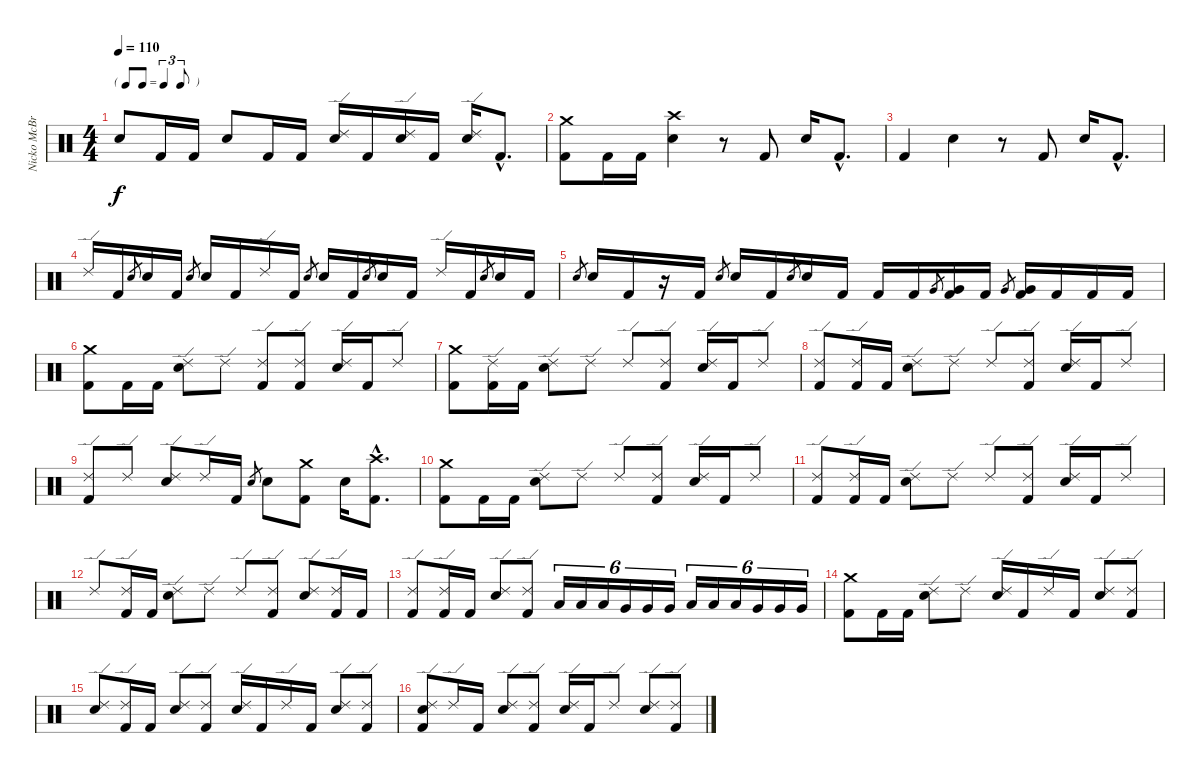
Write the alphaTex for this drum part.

\track ("Nicko McBrain" "Nicko McBr") {instrument percussion}
\staff {score}
\articulation defaults
\ts (4 4)
\tf triplet8th
\tempo 110
\clef neutral
\ks c "Electric Snare (hit)".8{dy f} "Kick (hit) 2".16 "Kick (hit) 2".16 "Electric Snare (hit)".8 "Kick (hit) 2".16 "Kick (hit) 2".16
("Ride (edge) 2" "Electric Snare (hit)").16 "Kick (hit) 2".16 ("Ride (edge) 2" "Electric Snare (hit)").16 "Kick (hit) 2".16 ("Ride (edge) 2" "Electric Snare (hit)").16 "Kick (hit) 2"{hac}.8{d} |
("Crash medium (hit)" "Kick (hit) 2").8 "Kick (hit) 2".16 "Kick (hit) 2".16 ("Crash high (hit)" "Electric Snare (hit)").4 r.8 "Kick (hit) 2".8 "Electric Snare (hit)".16 "Kick (hit) 2"{hac}.8{d} |
"Kick (hit) 2".4 "Electric Snare (hit)".4 r.8 "Kick (hit) 2".8 "Electric Snare (hit)".16 "Kick (hit) 2"{hac}.8{d} |
"Ride (edge) 2".16 "Kick (hit) 2".16 "Electric Snare (hit)".8{gr} "Electric Snare (hit)".16 "Kick (hit) 2".16 "Electric Snare (hit)".8{gr} "Electric Snare (hit)".16 "Kick (hit) 2".16 "Ride (edge) 2".16 "Kick (hit) 2".16 "Electric Snare (hit)".8{gr} "Electric Snare (hit)".16 "Kick (hit) 2".16 "Electric Snare (hit)".8{gr} "Electric Snare (hit)".16 "Kick (hit) 2".16 "Ride (edge) 2".16 "Kick (hit) 2".16 "Electric Snare (hit)".8{gr} "Electric Snare (hit)".16 "Kick (hit) 2".16 |
"Electric Snare (hit)".8{gr} "Electric Snare (hit)".16 "Kick (hit) 2".16 r.16 "Kick (hit) 2".16 "Electric Snare (hit)".8{gr} "Electric Snare (hit)".16 "Kick (hit) 2".16 "Electric Snare (hit)".8{gr} "Electric Snare (hit)".16 "Kick (hit) 2".16 "Kick (hit) 2".16 "Kick (hit) 2".16 "Very Low Tom (hit)".8{gr} ("Very Low Tom (hit)" "Kick (hit) 2").16 "Kick (hit) 2".16 "Very Low Tom (hit)".8{gr} ("Very Low Tom (hit)" "Kick (hit) 2").16 "Kick (hit) 2".16 "Kick (hit) 2".16 "Kick (hit) 2".16 |
("Crash medium (hit)" "Kick (hit) 2").8 "Kick (hit) 2".16 "Kick (hit) 2".16 ("Ride (edge) 2" "Electric Snare (hit)").8 "Ride (edge) 2".8 ("Ride (edge) 2" "Kick (hit) 2").8 ("Ride (edge) 2" "Kick (hit) 2").8 ("Ride (edge) 2" "Electric Snare (hit)").16 "Kick (hit) 2".16 "Ride (edge) 2".8 |
("Crash medium (hit)" "Kick (hit) 2").8 ("Ride (edge) 2" "Kick (hit) 2").16 "Kick (hit) 2".16 ("Ride (edge) 2" "Electric Snare (hit)").8 "Ride (edge) 2".8 "Ride (edge) 2".8 ("Ride (edge) 2" "Kick (hit) 2").8 ("Ride (edge) 2" "Electric Snare (hit)").16 "Kick (hit) 2".16 "Ride (edge) 2".8 |
("Ride (edge) 2" "Kick (hit) 2").8 ("Ride (edge) 2" "Kick (hit) 2").16 "Kick (hit) 2".16 ("Ride (edge) 2" "Electric Snare (hit)").8 "Ride (edge) 2".8 "Ride (edge) 2".8 ("Ride (edge) 2" "Kick (hit) 2").8 ("Ride (edge) 2" "Electric Snare (hit)").16 "Kick (hit) 2".16 "Ride (edge) 2".8 |
("Ride (edge) 2" "Kick (hit) 2").8 "Ride (edge) 2".8 ("Ride (edge) 2" "Electric Snare (hit)").8 "Ride (edge) 2".16 "Kick (hit) 2".16 "Electric Snare (hit)".8{gr} "Electric Snare (hit)".8 ("Crash medium (hit)" "Kick (hit) 2").8 "Electric Snare (hit)".16 ("Crash high (hit)"{hac} "Kick (hit) 2"{hac}).8{d} |
("Crash medium (hit)" "Kick (hit) 2").8 "Kick (hit) 2".16 "Kick (hit) 2".16 ("Ride (edge) 2" "Electric Snare (hit)").8 "Ride (edge) 2".8 "Ride (edge) 2".8 ("Ride (edge) 2" "Kick (hit) 2").8 ("Ride (edge) 2" "Electric Snare (hit)").16 "Kick (hit) 2".16 "Ride (edge) 2".8 |
("Ride (edge) 2" "Kick (hit) 2").8 ("Ride (edge) 2" "Kick (hit) 2").16 "Kick (hit) 2".16 ("Ride (edge) 2" "Electric Snare (hit)").8 "Ride (edge) 2".8 "Ride (edge) 2".8 ("Ride (edge) 2" "Kick (hit) 2").8 ("Ride (edge) 2" "Electric Snare (hit)").16 "Kick (hit) 2".16 "Ride (edge) 2".8 |
"Ride (edge) 2".8 ("Ride (edge) 2" "Kick (hit) 2").16 "Kick (hit) 2".16 ("Ride (edge) 2" "Electric Snare (hit)").8 "Ride (edge) 2".8 "Ride (edge) 2".8 ("Ride (edge) 2" "Kick (hit) 2").8 ("Ride (edge) 2" "Electric Snare (hit)").8 ("Ride (edge) 2" "Kick (hit) 2").16 "Kick (hit) 2".16 |
("Ride (edge) 2" "Kick (hit) 2").8 ("Ride (edge) 2" "Kick (hit) 2").16 "Kick (hit) 2".16 ("Ride (edge) 2" "Electric Snare (hit)").8 ("Ride (edge) 2" "Kick (hit) 2").8 "Low Tom (hit)".16{tu (6 4)} "Low Tom (hit)".16{tu (6 4)} "Low Tom (hit)".16{tu (6 4)} "Very Low Tom (hit)".16{tu (6 4)} "Very Low Tom (hit)".16{tu (6 4)} "Very Low Tom (hit)".16{tu (6 4)} "Low Tom (hit)".16{tu (6 4)} "Low Tom (hit)".16{tu (6 4)} "Low Tom (hit)".16{tu (6 4)} "Very Low Tom (hit)".16{tu (6 4)} "Very Low Tom (hit)".16{tu (6 4)} "Very Low Tom (hit)".16{tu (6 4)} |
("Crash medium (hit)" "Kick (hit) 2").8 "Kick (hit) 2".16 "Kick (hit) 2".16 ("Ride (edge) 2" "Electric Snare (hit)").8 "Ride (edge) 2".8 ("Ride (edge) 2" "Electric Snare (hit)").16 "Kick (hit) 2".16 "Ride (edge) 2".16 "Kick (hit) 2".16 ("Ride (edge) 2" "Electric Snare (hit)").8 ("Ride (edge) 2" "Kick (hit) 2").8 |
("Ride (edge) 2" "Electric Snare (hit)").8 ("Ride (edge) 2" "Kick (hit) 2").16 "Kick (hit) 2".16 ("Ride (edge) 2" "Electric Snare (hit)").8 ("Ride (edge) 2" "Kick (hit) 2").8 ("Ride (edge) 2" "Electric Snare (hit)").16 "Kick (hit) 2".16 "Ride (edge) 2".16 "Kick (hit) 2".16 ("Ride (edge) 2" "Electric Snare (hit)").8 ("Ride (edge) 2" "Kick (hit) 2").8 |
("Ride (edge) 2" "Electric Snare (hit)" "Kick (hit) 2").8 "Ride (edge) 2".16 "Kick (hit) 2".16 ("Ride (edge) 2" "Electric Snare (hit)").8 ("Ride (edge) 2" "Kick (hit) 2").8 ("Ride (edge) 2" "Electric Snare (hit)").16 "Kick (hit) 2".16 "Ride (edge) 2".8 ("Ride (edge) 2" "Electric Snare (hit)").8 ("Ride (edge) 2" "Kick (hit) 2").8
